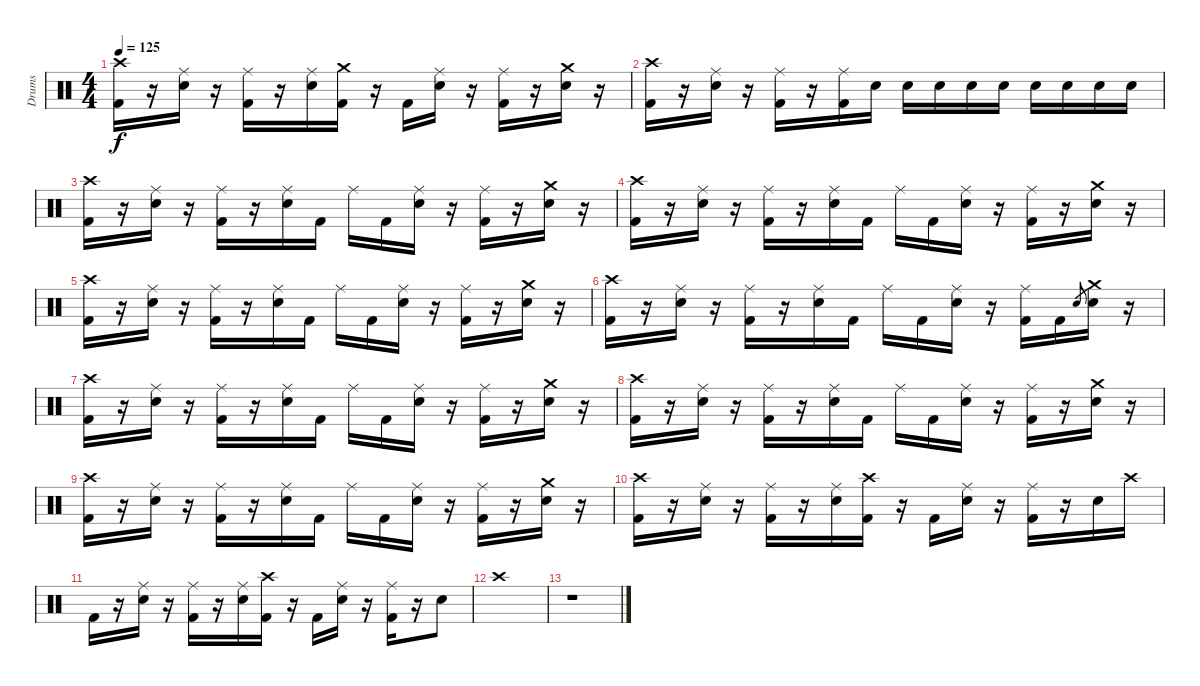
\track ("Drums" "Drums") {instrument percussion}
\staff {score}
\articulation defaults
\ts (4 4)
\tempo 125
\clef neutral
\ks c
("Crash high (hit)" "Kick (hit) 2").16{dy f} r.16 ("Ride (middle)" "Electric Snare (hit)").16 r.16 ("Ride (middle)" "Kick (hit) 2").16 r.16 ("Ride (middle)" "Electric Snare (hit)").16 ("Crash medium (hit)" "Kick (hit) 2").16 r.16 "Kick (hit) 2".16 ("Ride (middle)" "Electric Snare (hit)").16 r.16 ("Ride (middle)" "Kick (hit) 2").16 r.16 ("Crash medium (hit)" "Electric Snare (hit)").16 r.16 |
("Crash high (hit)" "Kick (hit) 2").16 r.16 ("Ride (middle)" "Electric Snare (hit)").16 r.16 ("Ride (middle)" "Kick (hit) 2").16 r.16 ("Ride (middle)" "Kick (hit) 2").16 "Electric Snare (hit)".16 "Electric Snare (hit)".16 "Electric Snare (hit)".16 "Electric Snare (hit)".16 "Electric Snare (hit)".16 "Electric Snare (hit)".16 "Electric Snare (hit)".16 "Electric Snare (hit)".16 "Electric Snare (hit)".16 |
("Crash high (hit)" "Kick (hit) 2").16 r.16 ("Ride (middle)" "Electric Snare (hit)").16 r.16 ("Ride (middle)" "Kick (hit) 2").16 r.16 ("Ride (middle)" "Electric Snare (hit)").16 "Kick (hit) 2".16 "Ride (middle)".16 "Kick (hit) 2".16 ("Ride (middle)" "Electric Snare (hit)").16 r.16 ("Ride (middle)" "Kick (hit) 2").16 r.16 ("Crash medium (hit)" "Electric Snare (hit)").16 r.16 |
("Crash high (hit)" "Kick (hit) 2").16 r.16 ("Ride (middle)" "Electric Snare (hit)").16 r.16 ("Ride (middle)" "Kick (hit) 2").16 r.16 ("Ride (middle)" "Electric Snare (hit)").16 "Kick (hit) 2".16 "Ride (middle)".16 "Kick (hit) 2".16 ("Ride (middle)" "Electric Snare (hit)").16 r.16 ("Ride (middle)" "Kick (hit) 2").16 r.16 ("Crash medium (hit)" "Electric Snare (hit)").16 r.16 |
("Crash high (hit)" "Kick (hit) 2").16 r.16 ("Ride (middle)" "Electric Snare (hit)").16 r.16 ("Ride (middle)" "Kick (hit) 2").16 r.16 ("Ride (middle)" "Electric Snare (hit)").16 "Kick (hit) 2".16 "Ride (middle)".16 "Kick (hit) 2".16 ("Ride (middle)" "Electric Snare (hit)").16 r.16 ("Ride (middle)" "Kick (hit) 2").16 r.16 ("Crash medium (hit)" "Electric Snare (hit)").16 r.16 |
("Crash high (hit)" "Kick (hit) 2").16 r.16 ("Ride (middle)" "Electric Snare (hit)").16 r.16 ("Ride (middle)" "Kick (hit) 2").16 r.16 ("Ride (middle)" "Electric Snare (hit)").16 "Kick (hit) 2".16 "Ride (middle)".16 "Kick (hit) 2".16 ("Ride (middle)" "Electric Snare (hit)").16 r.16 ("Ride (middle)" "Kick (hit) 2").16 "Kick (hit) 2".16 "Electric Snare (hit)".8{gr} ("Crash medium (hit)" "Electric Snare (hit)").16 r.16 |
("Crash high (hit)" "Kick (hit) 2").16 r.16 ("Ride (middle)" "Electric Snare (hit)").16 r.16 ("Ride (middle)" "Kick (hit) 2").16 r.16 ("Ride (middle)" "Electric Snare (hit)").16 "Kick (hit) 2".16 "Ride (middle)".16 "Kick (hit) 2".16 ("Ride (middle)" "Electric Snare (hit)").16 r.16 ("Ride (middle)" "Kick (hit) 2").16 r.16 ("Crash medium (hit)" "Electric Snare (hit)").16 r.16 |
("Crash high (hit)" "Kick (hit) 2").16 r.16 ("Ride (middle)" "Electric Snare (hit)").16 r.16 ("Ride (middle)" "Kick (hit) 2").16 r.16 ("Ride (middle)" "Electric Snare (hit)").16 "Kick (hit) 2".16 "Ride (middle)".16 "Kick (hit) 2".16 ("Ride (middle)" "Electric Snare (hit)").16 r.16 ("Ride (middle)" "Kick (hit) 2").16 r.16 ("Crash medium (hit)" "Electric Snare (hit)").16 r.16 |
("Crash high (hit)" "Kick (hit) 2").16 r.16 ("Ride (middle)" "Electric Snare (hit)").16 r.16 ("Ride (middle)" "Kick (hit) 2").16 r.16 ("Ride (middle)" "Electric Snare (hit)").16 "Kick (hit) 2".16 "Ride (middle)".16 "Kick (hit) 2".16 ("Ride (middle)" "Electric Snare (hit)").16 r.16 ("Ride (middle)" "Kick (hit) 2").16 r.16 ("Crash medium (hit)" "Electric Snare (hit)").16 r.16 |
("Crash high (hit)" "Kick (hit) 2").16 r.16 ("Ride (middle)" "Electric Snare (hit)").16 r.16 ("Ride (middle)" "Kick (hit) 2").16 r.16 ("Ride (middle)" "Electric Snare (hit)").16 ("Crash high (hit)" "Kick (hit) 2").16 r.16 "Kick (hit) 2".16 ("Ride (middle)" "Electric Snare (hit)").16 r.16 ("Ride (middle)" "Kick (hit) 2").16 r.16 "Electric Snare (hit)".16 "Crash high (hit)".16 |
"Kick (hit) 2".16 r.16 ("Ride (middle)" "Electric Snare (hit)").16 r.16 ("Ride (middle)" "Kick (hit) 2").16 r.16 ("Ride (middle)" "Electric Snare (hit)").16 ("Crash high (hit)" "Kick (hit) 2").16 r.16 "Kick (hit) 2".16 ("Ride (middle)" "Electric Snare (hit)").16 r.16 ("Ride (middle)" "Kick (hit) 2").16 r.16 "Electric Snare (hit)".8 |
"Crash high (hit)".1 |
r.1
